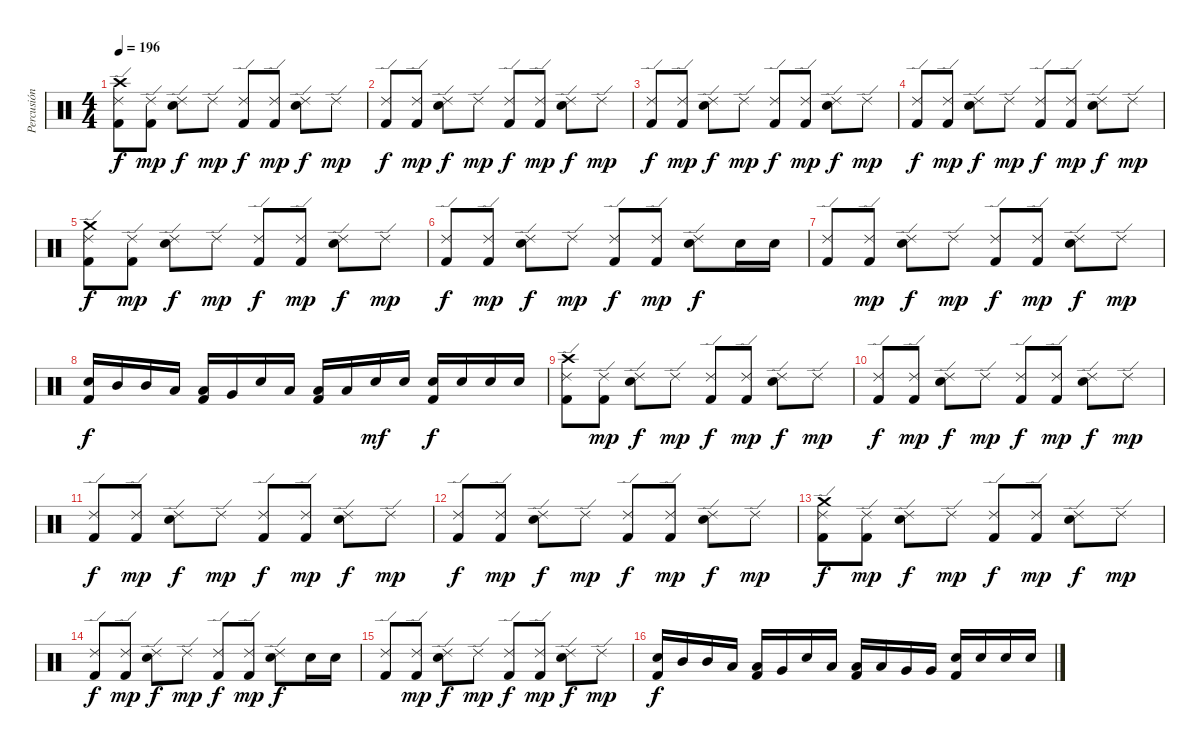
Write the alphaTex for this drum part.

\track ("Percusión" "Percusión") {instrument percussion}
\staff {score}
\articulation defaults
\ts (4 4)
\tempo 196
\clef neutral
\ks c
("Crash high (hit)" "Ride (edge) 2" "Kick (hit) 2").8{dy f} ("Ride (edge) 2" "Kick (hit) 2").8{dy mp} ("Ride (edge) 2" "Electric Snare (hit)").8{dy f} "Ride (edge) 2".8{dy mp} ("Ride (edge) 2" "Kick (hit) 2").8{dy f} ("Ride (edge) 2" "Kick (hit) 2").8{dy mp} ("Ride (edge) 2" "Electric Snare (hit)").8{dy f} "Ride (edge) 2".8{dy mp} |
("Ride (edge) 2" "Kick (hit) 2").8{dy f} ("Ride (edge) 2" "Kick (hit) 2").8{dy mp} ("Ride (edge) 2" "Electric Snare (hit)").8{dy f} "Ride (edge) 2".8{dy mp} ("Ride (edge) 2" "Kick (hit) 2").8{dy f} ("Ride (edge) 2" "Kick (hit) 2").8{dy mp} ("Ride (edge) 2" "Electric Snare (hit)").8{dy f} "Ride (edge) 2".8{dy mp} |
("Ride (edge) 2" "Kick (hit) 2").8{dy f} ("Ride (edge) 2" "Kick (hit) 2").8{dy mp} ("Ride (edge) 2" "Electric Snare (hit)").8{dy f} "Ride (edge) 2".8{dy mp} ("Ride (edge) 2" "Kick (hit) 2").8{dy f} ("Ride (edge) 2" "Kick (hit) 2").8{dy mp} ("Ride (edge) 2" "Electric Snare (hit)").8{dy f} "Ride (edge) 2".8{dy mp} |
("Ride (edge) 2" "Kick (hit) 2").8{dy f} ("Ride (edge) 2" "Kick (hit) 2").8{dy mp} ("Ride (edge) 2" "Electric Snare (hit)").8{dy f} "Ride (edge) 2".8{dy mp} ("Ride (edge) 2" "Kick (hit) 2").8{dy f} ("Ride (edge) 2" "Kick (hit) 2").8{dy mp} ("Ride (edge) 2" "Electric Snare (hit)").8{dy f} "Ride (edge) 2".8{dy mp} |
("Crash medium (hit)" "Ride (edge) 2" "Kick (hit) 2").8{dy f} ("Ride (edge) 2" "Kick (hit) 2").8{dy mp} ("Ride (edge) 2" "Electric Snare (hit)").8{dy f} "Ride (edge) 2".8{dy mp} ("Ride (edge) 2" "Kick (hit) 2").8{dy f} ("Ride (edge) 2" "Kick (hit) 2").8{dy mp} ("Ride (edge) 2" "Electric Snare (hit)").8{dy f} "Ride (edge) 2".8{dy mp} |
("Ride (edge) 2" "Kick (hit) 2").8{dy f} ("Ride (edge) 2" "Kick (hit) 2").8{dy mp} ("Ride (edge) 2" "Electric Snare (hit)").8{dy f} "Ride (edge) 2".8{dy mp} ("Ride (edge) 2" "Kick (hit) 2").8{dy f} ("Ride (edge) 2" "Kick (hit) 2").8{dy mp} ("Ride (edge) 2" "Electric Snare (hit)").8{dy f} "Electric Snare (hit)".16 "Electric Snare (hit)".16 |
("Ride (edge) 2" "Kick (hit) 2").8 ("Ride (edge) 2" "Kick (hit) 2").8{dy mp} ("Ride (edge) 2" "Electric Snare (hit)").8{dy f} "Ride (edge) 2".8{dy mp} ("Ride (edge) 2" "Kick (hit) 2").8{dy f} ("Ride (edge) 2" "Kick (hit) 2").8{dy mp} ("Ride (edge) 2" "Electric Snare (hit)").8{dy f} "Ride (edge) 2".8{dy mp} |
("Electric Snare (hit)" "Kick (hit) 2").16{dy f} "Mid Tom (hit)".16 "Mid Tom (hit)".16 "Low Tom (hit)".16 ("Low Tom (hit)" "Kick (hit) 2").16 "Very Low Tom (hit)".16 "Electric Snare (hit)".16 "Low Tom (hit)".16 ("Low Tom (hit)" "Kick (hit) 2").16 "Low Floor Tom (hit)".16 "Electric Snare (hit)".16{dy mf} "Electric Snare (hit)".16 ("Electric Snare (hit)" "Kick (hit) 2").16{dy f} "Electric Snare (hit)".16 "Electric Snare (hit)".16 "Electric Snare (hit)".16 |
("Crash high (hit)" "Ride (edge) 2" "Kick (hit) 2").8 ("Ride (edge) 2" "Kick (hit) 2").8{dy mp} ("Ride (edge) 2" "Electric Snare (hit)").8{dy f} "Ride (edge) 2".8{dy mp} ("Ride (edge) 2" "Kick (hit) 2").8{dy f} ("Ride (edge) 2" "Kick (hit) 2").8{dy mp} ("Ride (edge) 2" "Electric Snare (hit)").8{dy f} "Ride (edge) 2".8{dy mp} |
("Ride (edge) 2" "Kick (hit) 2").8{dy f} ("Ride (edge) 2" "Kick (hit) 2").8{dy mp} ("Ride (edge) 2" "Electric Snare (hit)").8{dy f} "Ride (edge) 2".8{dy mp} ("Ride (edge) 2" "Kick (hit) 2").8{dy f} ("Ride (edge) 2" "Kick (hit) 2").8{dy mp} ("Ride (edge) 2" "Electric Snare (hit)").8{dy f} "Ride (edge) 2".8{dy mp} |
("Ride (edge) 2" "Kick (hit) 2").8{dy f} ("Ride (edge) 2" "Kick (hit) 2").8{dy mp} ("Ride (edge) 2" "Electric Snare (hit)").8{dy f} "Ride (edge) 2".8{dy mp} ("Ride (edge) 2" "Kick (hit) 2").8{dy f} ("Ride (edge) 2" "Kick (hit) 2").8{dy mp} ("Ride (edge) 2" "Electric Snare (hit)").8{dy f} "Ride (edge) 2".8{dy mp} |
("Ride (edge) 2" "Kick (hit) 2").8{dy f} ("Ride (edge) 2" "Kick (hit) 2").8{dy mp} ("Ride (edge) 2" "Electric Snare (hit)").8{dy f} "Ride (edge) 2".8{dy mp} ("Ride (edge) 2" "Kick (hit) 2").8{dy f} ("Ride (edge) 2" "Kick (hit) 2").8{dy mp} ("Ride (edge) 2" "Electric Snare (hit)").8{dy f} "Ride (edge) 2".8{dy mp} |
("Crash medium (hit)" "Ride (edge) 2" "Kick (hit) 2").8{dy f} ("Ride (edge) 2" "Kick (hit) 2").8{dy mp} ("Ride (edge) 2" "Electric Snare (hit)").8{dy f} "Ride (edge) 2".8{dy mp} ("Ride (edge) 2" "Kick (hit) 2").8{dy f} ("Ride (edge) 2" "Kick (hit) 2").8{dy mp} ("Ride (edge) 2" "Electric Snare (hit)").8{dy f} "Ride (edge) 2".8{dy mp} |
("Ride (edge) 2" "Kick (hit) 2").8{dy f} ("Ride (edge) 2" "Kick (hit) 2").8{dy mp} ("Ride (edge) 2" "Electric Snare (hit)").8{dy f} "Ride (edge) 2".8{dy mp} ("Ride (edge) 2" "Kick (hit) 2").8{dy f} ("Ride (edge) 2" "Kick (hit) 2").8{dy mp} ("Ride (edge) 2" "Electric Snare (hit)").8{dy f} "Electric Snare (hit)".16 "Electric Snare (hit)".16 |
("Ride (edge) 2" "Kick (hit) 2").8 ("Ride (edge) 2" "Kick (hit) 2").8{dy mp} ("Ride (edge) 2" "Electric Snare (hit)").8{dy f} "Ride (edge) 2".8{dy mp} ("Ride (edge) 2" "Kick (hit) 2").8{dy f} ("Ride (edge) 2" "Kick (hit) 2").8{dy mp} ("Ride (edge) 2" "Electric Snare (hit)").8{dy f} "Ride (edge) 2".8{dy mp} |
("Electric Snare (hit)" "Kick (hit) 2").16{dy f} "Mid Tom (hit)".16 "Mid Tom (hit)".16 "Low Tom (hit)".16 ("Low Tom (hit)" "Kick (hit) 2").16 "Very Low Tom (hit)".16 "Electric Snare (hit)".16 "Low Tom (hit)".16 ("Low Tom (hit)" "Kick (hit) 2").16 "Low Tom (hit)".16 "Very Low Tom (hit)".16 "Very Low Tom (hit)".16 ("Electric Snare (hit)" "Kick (hit) 2").16 "Electric Snare (hit)".16 "Electric Snare (hit)".16 "Electric Snare (hit)".16
